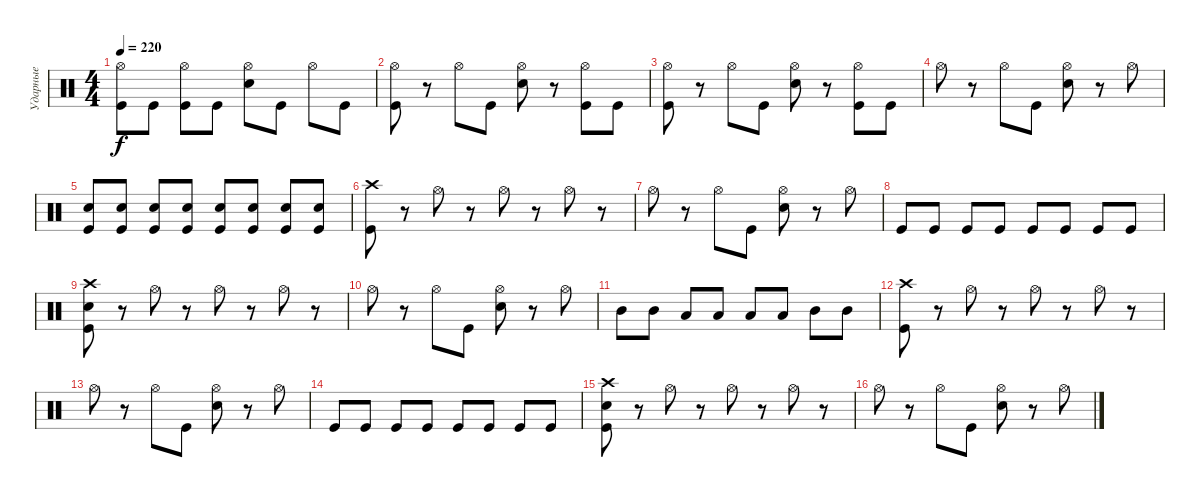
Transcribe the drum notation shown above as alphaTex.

\track ("Ударные" "Ударные") {instrument percussion}
\staff {score}
\articulation defaults
\ts (4 4)
\tempo 220
\clef neutral
\ks c
("Hi-Hat (open)" "Kick (hit)").8{dy f} "Kick (hit)".8 ("Hi-Hat (open)" "Kick (hit)").8 "Kick (hit)".8 ("Hi-Hat (open)" "Electric Snare (hit)").8 "Kick (hit)".8 "Hi-Hat (open)".8 "Kick (hit)".8 |
("Hi-Hat (open)" "Kick (hit)").8 r.8 "Hi-Hat (open)".8 "Kick (hit)".8 ("Hi-Hat (open)" "Electric Snare (hit)").8 r.8 ("Hi-Hat (open)" "Kick (hit)").8 "Kick (hit)".8 |
("Hi-Hat (open)" "Kick (hit)").8 r.8 "Hi-Hat (open)".8 "Kick (hit)".8 ("Hi-Hat (open)" "Electric Snare (hit)").8 r.8 ("Hi-Hat (open)" "Kick (hit)").8 "Kick (hit)".8 |
"Hi-Hat (open)".8 r.8 "Hi-Hat (open)".8 "Kick (hit)".8 ("Hi-Hat (open)" "Electric Snare (hit)").8 r.8 "Hi-Hat (open)".8 |
("Electric Snare (hit)" "Kick (hit)").8 ("Electric Snare (hit)" "Kick (hit)").8 ("Electric Snare (hit)" "Kick (hit)").8 ("Electric Snare (hit)" "Kick (hit)").8 ("Electric Snare (hit)" "Kick (hit)").8 ("Electric Snare (hit)" "Kick (hit)").8 ("Electric Snare (hit)" "Kick (hit)").8 ("Electric Snare (hit)" "Kick (hit)").8 |
("Kick (hit)" "Crash high (hit)").8 r.8 "Hi-Hat (open)".8 r.8 "Hi-Hat (open)".8 r.8 "Hi-Hat (open)".8 r.8 |
"Hi-Hat (open)".8 r.8 "Hi-Hat (open)".8 "Kick (hit)".8 ("Hi-Hat (open)" "Electric Snare (hit)").8 r.8 "Hi-Hat (open)".8 |
"Kick (hit)".8 "Kick (hit)".8 "Kick (hit)".8 "Kick (hit)".8 "Kick (hit)".8 "Kick (hit)".8 "Kick (hit)".8 "Kick (hit)".8 |
("Kick (hit)" "Electric Snare (hit)" "Crash high (hit)").8 r.8 "Hi-Hat (open)".8 r.8 "Hi-Hat (open)".8 r.8 "Hi-Hat (open)".8 r.8 |
"Hi-Hat (open)".8 r.8 "Hi-Hat (open)".8 "Kick (hit)".8 ("Hi-Hat (open)" "Electric Snare (hit)").8 r.8 "Hi-Hat (open)".8 |
"Mid Tom (hit)".8 "Mid Tom (hit)".8 "Low Tom (hit)".8 "Low Tom (hit)".8 "Low Floor Tom (hit)".8 "Low Floor Tom (hit)".8 "Mid Tom (hit)".8 "Mid Tom (hit)".8 |
("Kick (hit)" "Crash high (hit)").8 r.8 "Hi-Hat (open)".8 r.8 "Hi-Hat (open)".8 r.8 "Hi-Hat (open)".8 r.8 |
"Hi-Hat (open)".8 r.8 "Hi-Hat (open)".8 "Kick (hit)".8 ("Hi-Hat (open)" "Electric Snare (hit)").8 r.8 "Hi-Hat (open)".8 |
"Kick (hit)".8 "Kick (hit)".8 "Kick (hit)".8 "Kick (hit)".8 "Kick (hit)".8 "Kick (hit)".8 "Kick (hit)".8 "Kick (hit)".8 |
("Kick (hit)" "Electric Snare (hit)" "Crash high (hit)").8 r.8 "Hi-Hat (open)".8 r.8 "Hi-Hat (open)".8 r.8 "Hi-Hat (open)".8 r.8 |
"Hi-Hat (open)".8 r.8 "Hi-Hat (open)".8 "Kick (hit)".8 ("Hi-Hat (open)" "Electric Snare (hit)").8 r.8 "Hi-Hat (open)".8
